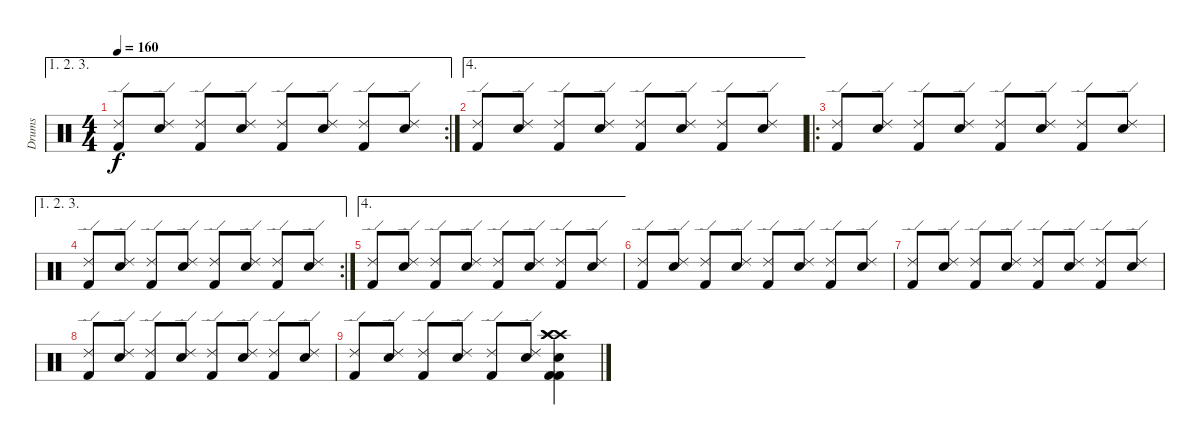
\track ("Drums" "Drums") {instrument percussion}
\staff {score}
\articulation defaults
\ae (1 2 3)
\rc 2
\ts (4 4)
\tempo 160
\clef neutral
\ks c
("Ride (edge) 2" "Kick (hit) 2").8{dy f} ("Ride (edge) 2" "Snare (hit) 2").8 ("Ride (edge) 2" "Kick (hit) 2").8 ("Ride (edge) 2" "Snare (hit) 2").8 ("Ride (edge) 2" "Kick (hit) 2").8 ("Ride (edge) 2" "Snare (hit) 2").8 ("Ride (edge) 2" "Kick (hit) 2").8 ("Ride (edge) 2" "Snare (hit) 2").8 |
\ae 4
("Ride (edge) 2" "Kick (hit) 2").8 ("Ride (edge) 2" "Snare (hit) 2").8 ("Ride (edge) 2" "Kick (hit) 2").8 ("Ride (edge) 2" "Snare (hit) 2").8 ("Ride (edge) 2" "Kick (hit) 2").8 ("Ride (edge) 2" "Snare (hit) 2").8 ("Ride (edge) 2" "Kick (hit) 2").8 ("Ride (edge) 2" "Snare (hit) 2").8 |
\ro
("Ride (edge) 2" "Kick (hit) 2").8 ("Ride (edge) 2" "Snare (hit) 2").8 ("Ride (edge) 2" "Kick (hit) 2").8 ("Ride (edge) 2" "Snare (hit) 2").8 ("Ride (edge) 2" "Kick (hit) 2").8 ("Ride (edge) 2" "Snare (hit) 2").8 ("Ride (edge) 2" "Kick (hit) 2").8 ("Ride (edge) 2" "Snare (hit) 2").8 |
\ae (1 2 3)
\rc 2
("Ride (edge) 2" "Kick (hit) 2").8 ("Ride (edge) 2" "Snare (hit) 2").8 ("Ride (edge) 2" "Kick (hit) 2").8 ("Ride (edge) 2" "Snare (hit) 2").8 ("Ride (edge) 2" "Kick (hit) 2").8 ("Ride (edge) 2" "Snare (hit) 2").8 ("Ride (edge) 2" "Kick (hit) 2").8 ("Ride (edge) 2" "Snare (hit) 2").8 |
\ae 4
("Ride (edge) 2" "Kick (hit) 2").8 ("Ride (edge) 2" "Snare (hit) 2").8 ("Ride (edge) 2" "Kick (hit) 2").8 ("Ride (edge) 2" "Snare (hit) 2").8 ("Ride (edge) 2" "Kick (hit) 2").8 ("Ride (edge) 2" "Snare (hit) 2").8 ("Ride (edge) 2" "Kick (hit) 2").8 ("Ride (edge) 2" "Snare (hit) 2").8 |
("Ride (edge) 2" "Kick (hit) 2").8 ("Ride (edge) 2" "Snare (hit) 2").8 ("Ride (edge) 2" "Kick (hit) 2").8 ("Ride (edge) 2" "Snare (hit) 2").8 ("Ride (edge) 2" "Kick (hit) 2").8 ("Ride (edge) 2" "Snare (hit) 2").8 ("Ride (edge) 2" "Kick (hit) 2").8 ("Ride (edge) 2" "Snare (hit) 2").8 |
("Ride (edge) 2" "Kick (hit) 2").8 ("Ride (edge) 2" "Snare (hit) 2").8 ("Ride (edge) 2" "Kick (hit) 2").8 ("Ride (edge) 2" "Snare (hit) 2").8 ("Ride (edge) 2" "Kick (hit) 2").8 ("Ride (edge) 2" "Snare (hit) 2").8 ("Ride (edge) 2" "Kick (hit) 2").8 ("Ride (edge) 2" "Snare (hit) 2").8 |
("Ride (edge) 2" "Kick (hit) 2").8 ("Ride (edge) 2" "Snare (hit) 2").8 ("Ride (edge) 2" "Kick (hit) 2").8 ("Ride (edge) 2" "Snare (hit) 2").8 ("Ride (edge) 2" "Kick (hit) 2").8 ("Ride (edge) 2" "Snare (hit) 2").8 ("Ride (edge) 2" "Kick (hit) 2").8 ("Ride (edge) 2" "Snare (hit) 2").8 |
("Ride (edge) 2" "Kick (hit) 2").8 ("Ride (edge) 2" "Snare (hit) 2").8 ("Ride (edge) 2" "Kick (hit) 2").8 ("Ride (edge) 2" "Snare (hit) 2").8 ("Ride (edge) 2" "Kick (hit) 2").8 ("Ride (edge) 2" "Snare (hit) 2").8 ("Kick (hit) 2" "Electric Snare (hit)" "Crash high (hit)" "Crash high (hit)" "Crash high (hit)" "Kick (hit) 2").4
